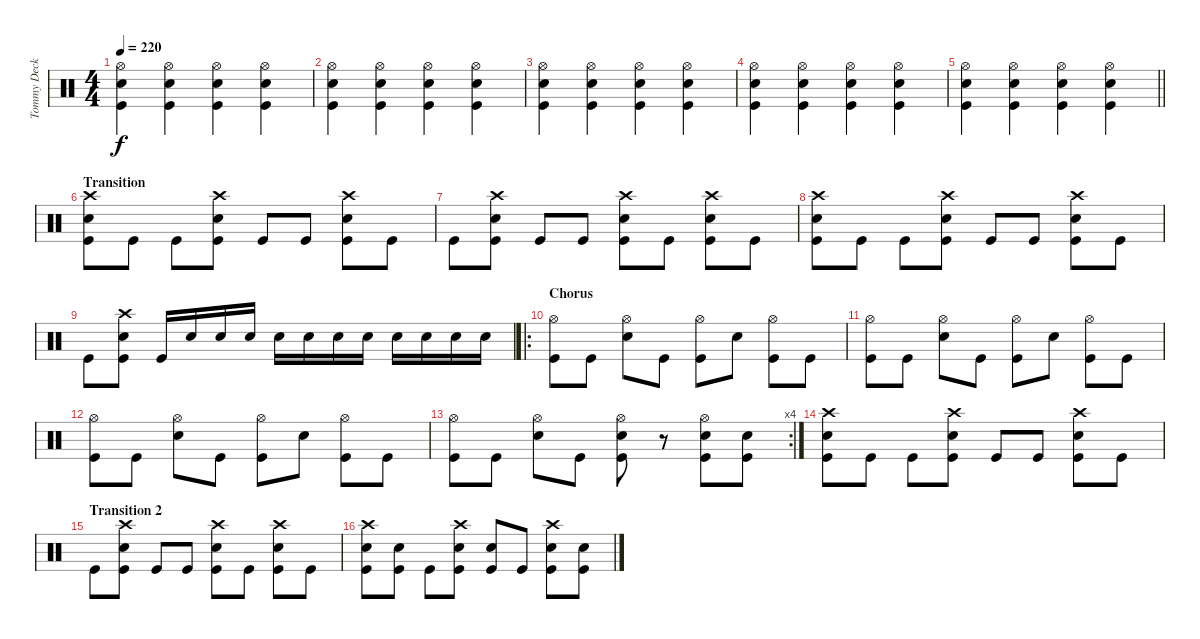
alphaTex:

\track ("Tommy Decker" "Tommy Deck") {instrument percussion}
\staff {score}
\articulation defaults
\ts (4 4)
\tempo 220
\clef neutral
\ks c
("Hi-Hat (open)" "Electric Snare (hit)" "Kick (hit)").4{dy f} ("Hi-Hat (open)" "Electric Snare (hit)" "Kick (hit)").4 ("Hi-Hat (open)" "Electric Snare (hit)" "Kick (hit)").4 ("Hi-Hat (open)" "Electric Snare (hit)" "Kick (hit)").4 |
("Hi-Hat (open)" "Electric Snare (hit)" "Kick (hit)").4 ("Hi-Hat (open)" "Electric Snare (hit)" "Kick (hit)").4 ("Hi-Hat (open)" "Electric Snare (hit)" "Kick (hit)").4 ("Hi-Hat (open)" "Electric Snare (hit)" "Kick (hit)").4 |
("Hi-Hat (open)" "Electric Snare (hit)" "Kick (hit)").4 ("Hi-Hat (open)" "Electric Snare (hit)" "Kick (hit)").4 ("Hi-Hat (open)" "Electric Snare (hit)" "Kick (hit)").4 ("Hi-Hat (open)" "Electric Snare (hit)" "Kick (hit)").4 |
("Hi-Hat (open)" "Electric Snare (hit)" "Kick (hit)").4 ("Hi-Hat (open)" "Electric Snare (hit)" "Kick (hit)").4 ("Hi-Hat (open)" "Electric Snare (hit)" "Kick (hit)").4 ("Hi-Hat (open)" "Electric Snare (hit)" "Kick (hit)").4 |
\barLineRight lightlight
("Hi-Hat (open)" "Electric Snare (hit)" "Kick (hit)").4 ("Hi-Hat (open)" "Electric Snare (hit)" "Kick (hit)").4 ("Hi-Hat (open)" "Electric Snare (hit)" "Kick (hit)").4 ("Hi-Hat (open)" "Electric Snare (hit)" "Kick (hit)").4 |
\section ("" "Transition")
("Crash high (hit)" "Electric Snare (hit)" "Kick (hit)").8 "Kick (hit)".8 "Kick (hit)".8 ("Crash high (hit)" "Electric Snare (hit)" "Kick (hit)").8 "Kick (hit)".8 "Kick (hit)".8 ("Crash high (hit)" "Electric Snare (hit)" "Kick (hit)").8 "Kick (hit)".8 |
"Kick (hit)".8 ("Crash high (hit)" "Electric Snare (hit)" "Kick (hit)").8 "Kick (hit)".8 "Kick (hit)".8 ("Crash high (hit)" "Electric Snare (hit)" "Kick (hit)").8 "Kick (hit)".8 ("Crash high (hit)" "Electric Snare (hit)" "Kick (hit)").8 "Kick (hit)".8 |
("Crash high (hit)" "Electric Snare (hit)" "Kick (hit)").8 "Kick (hit)".8 "Kick (hit)".8 ("Crash high (hit)" "Electric Snare (hit)" "Kick (hit)").8 "Kick (hit)".8 "Kick (hit)".8 ("Crash high (hit)" "Electric Snare (hit)" "Kick (hit)").8 "Kick (hit)".8 |
"Kick (hit)".8 ("Crash high (hit)" "Electric Snare (hit)" "Kick (hit)").8 "Kick (hit)".16 "Electric Snare (hit)".16 "Electric Snare (hit)".16 "Electric Snare (hit)".16 "Electric Snare (hit)".16 "Electric Snare (hit)".16 "Electric Snare (hit)".16 "Electric Snare (hit)".16 "Electric Snare (hit)".16 "Electric Snare (hit)".16 "Electric Snare (hit)".16 "Electric Snare (hit)".16 |
\ro
\section ("" "Chorus")
("Hi-Hat (open)" "Kick (hit)").8 "Kick (hit)".8 ("Hi-Hat (open)" "Electric Snare (hit)").8 "Kick (hit)".8 ("Hi-Hat (open)" "Kick (hit)").8 "Electric Snare (hit)".8 ("Hi-Hat (open)" "Kick (hit)").8 "Kick (hit)".8 |
("Hi-Hat (open)" "Kick (hit)").8 "Kick (hit)".8 ("Hi-Hat (open)" "Electric Snare (hit)").8 "Kick (hit)".8 ("Hi-Hat (open)" "Kick (hit)").8 "Electric Snare (hit)".8 ("Hi-Hat (open)" "Kick (hit)").8 "Kick (hit)".8 |
("Hi-Hat (open)" "Kick (hit)").8 "Kick (hit)".8 ("Hi-Hat (open)" "Electric Snare (hit)").8 "Kick (hit)".8 ("Hi-Hat (open)" "Kick (hit)").8 "Electric Snare (hit)".8 ("Hi-Hat (open)" "Kick (hit)").8 "Kick (hit)".8 |
\rc 4
("Hi-Hat (open)" "Kick (hit)").8 "Kick (hit)".8 ("Hi-Hat (open)" "Electric Snare (hit)").8 "Kick (hit)".8 ("Hi-Hat (open)" "Electric Snare (hit)" "Kick (hit)").8 r.8 ("Hi-Hat (open)" "Electric Snare (hit)" "Kick (hit)").8 ("Electric Snare (hit)" "Kick (hit)").8 |
("Crash high (hit)" "Electric Snare (hit)" "Kick (hit)").8 "Kick (hit)".8 "Kick (hit)".8 ("Crash high (hit)" "Electric Snare (hit)" "Kick (hit)").8 "Kick (hit)".8 "Kick (hit)".8 ("Crash high (hit)" "Electric Snare (hit)" "Kick (hit)").8 "Kick (hit)".8 |
\section ("" "Transition 2")
"Kick (hit)".8 ("Crash high (hit)" "Electric Snare (hit)" "Kick (hit)").8 "Kick (hit)".8 "Kick (hit)".8 ("Crash high (hit)" "Electric Snare (hit)" "Kick (hit)").8 "Kick (hit)".8 ("Crash high (hit)" "Electric Snare (hit)" "Kick (hit)").8 "Kick (hit)".8 |
("Crash high (hit)" "Electric Snare (hit)" "Kick (hit)").8 ("Electric Snare (hit)" "Kick (hit)").8 "Kick (hit)".8 ("Crash high (hit)" "Electric Snare (hit)" "Kick (hit)").8 ("Electric Snare (hit)" "Kick (hit)").8 "Kick (hit)".8 ("Crash high (hit)" "Electric Snare (hit)" "Kick (hit)").8 ("Electric Snare (hit)" "Kick (hit)").8
